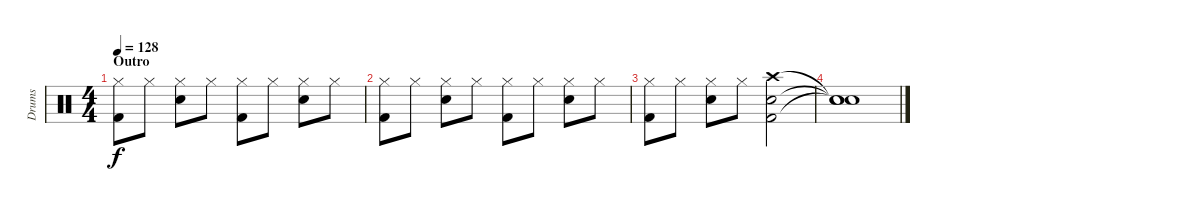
\track ("Drums" "Drums") {instrument percussion}
\staff {score}
\articulation defaults
\ts (4 4)
\section ("" "Outro")
\tempo 128
\clef neutral
\ks c
("Hi-Hat (closed)" "Kick (hit) 2").8{dy f} "Hi-Hat (closed)".8 ("Hi-Hat (closed)" "Electric Snare (hit)").8 "Hi-Hat (closed)".8 ("Hi-Hat (closed)" "Kick (hit) 2").8 "Hi-Hat (closed)".8 ("Hi-Hat (closed)" "Electric Snare (hit)").8 "Hi-Hat (closed)".8 |
("Hi-Hat (closed)" "Kick (hit) 2").8 "Hi-Hat (closed)".8 ("Hi-Hat (closed)" "Electric Snare (hit)").8 "Hi-Hat (closed)".8 ("Hi-Hat (closed)" "Kick (hit) 2").8 "Hi-Hat (closed)".8 ("Hi-Hat (closed)" "Electric Snare (hit)").8 "Hi-Hat (closed)".8 |
("Hi-Hat (closed)" "Kick (hit) 2").8 "Hi-Hat (closed)".8 ("Hi-Hat (closed)" "Electric Snare (hit)").8 "Hi-Hat (closed)".8 ("Crash high (hit)" "Electric Snare (hit)" "Kick (hit) 2").2 |
("Snare (hit)"{t} "Snare (hit)"{t} "Snare (hit)"{t}).1
